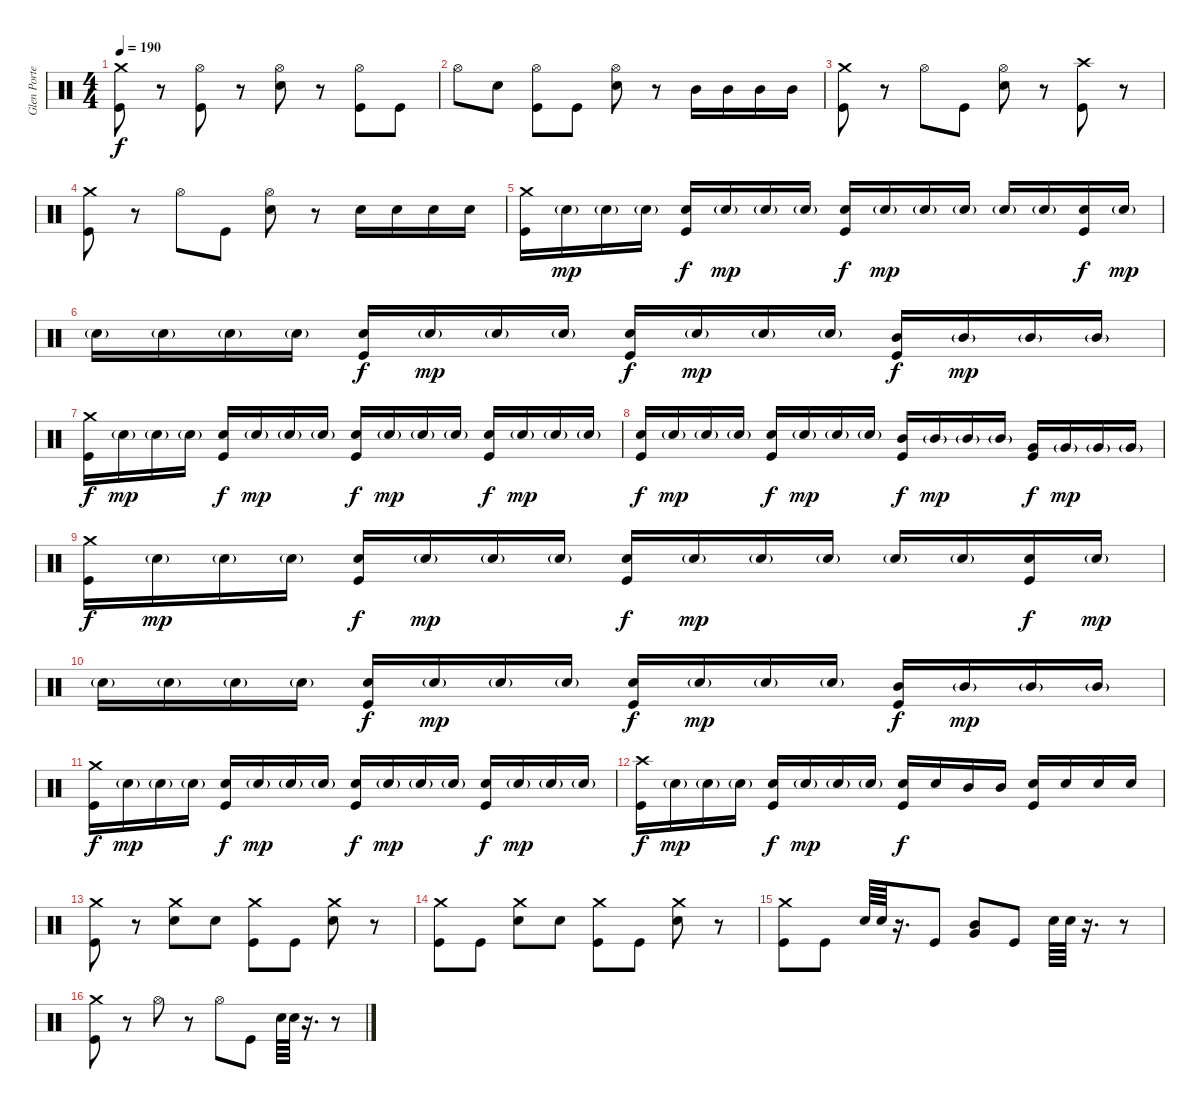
\track ("Glen Porter" "Glen Porte") {instrument percussion}
\staff {score}
\articulation defaults
\ts (4 4)
\tempo 190
\clef neutral
\ks c
("Crash medium (hit)" "Kick (hit)").8{dy f} r.8 ("Hi-Hat (open)" "Kick (hit)").8 r.8 ("Hi-Hat (open)" "Snare (hit) 2").8 r.8 ("Hi-Hat (open)" "Kick (hit)").8 "Kick (hit)".8 |
"Hi-Hat (open)".8 "Snare (hit) 2".8 ("Hi-Hat (open)" "Kick (hit)").8 "Kick (hit)".8 ("Hi-Hat (open)" "Snare (hit) 2").8 r.8 "Mid Tom (hit)".16 "Mid Tom (hit)".16 "Mid Tom (hit)".16 "Mid Tom (hit)".16 |
("Crash medium (hit)" "Kick (hit)").8 r.8 "Hi-Hat (open)".8 "Kick (hit)".8 ("Hi-Hat (open)" "Snare (hit) 2").8 r.8 ("Crash high (hit)" "Kick (hit)").8 r.8 |
("Crash medium (hit)" "Kick (hit)").8 r.8 "Hi-Hat (open)".8 "Kick (hit)".8 ("Hi-Hat (open)" "Snare (hit) 2").8 r.8 "Snare (hit) 2".16 "Snare (hit) 2".16 "Snare (hit) 2".16 "Snare (hit) 2".16 |
("Crash medium (hit)" "Kick (hit)").16 "Snare (hit) 2"{g}.16{dy mp} "Snare (hit) 2"{g}.16 "Snare (hit) 2"{g}.16 ("Snare (hit) 2" "Kick (hit)").16{dy f} "Snare (hit) 2"{g}.16{dy mp} "Snare (hit) 2"{g}.16 "Snare (hit) 2"{g}.16 ("Snare (hit) 2" "Kick (hit)").16{dy f} "Snare (hit) 2"{g}.16{dy mp} "Snare (hit) 2"{g}.16 "Snare (hit) 2"{g}.16 "Snare (hit) 2"{g}.16 "Snare (hit) 2"{g}.16 ("Snare (hit) 2" "Kick (hit)").16{dy f} "Snare (hit) 2"{g}.16{dy mp} |
"Snare (hit) 2"{g}.16 "Snare (hit) 2"{g}.16 "Snare (hit) 2"{g}.16 "Snare (hit) 2"{g}.16 ("Snare (hit) 2" "Kick (hit)").16{dy f} "Snare (hit) 2"{g}.16{dy mp} "Snare (hit) 2"{g}.16 "Snare (hit) 2"{g}.16 ("Snare (hit) 2" "Kick (hit)").16{dy f} "Snare (hit) 2"{g}.16{dy mp} "Snare (hit) 2"{g}.16 "Snare (hit) 2"{g}.16 ("Mid Tom (hit)" "Kick (hit)").16{dy f} "Mid Tom (hit)"{g}.16{dy mp} "Mid Tom (hit)"{g}.16 "Mid Tom (hit)"{g}.16 |
("Crash medium (hit)" "Kick (hit)").16{dy f} "Snare (hit) 2"{g}.16{dy mp} "Snare (hit) 2"{g}.16 "Snare (hit) 2"{g}.16 ("Snare (hit) 2" "Kick (hit)").16{dy f} "Snare (hit) 2"{g}.16{dy mp} "Snare (hit) 2"{g}.16 "Snare (hit) 2"{g}.16 ("Snare (hit) 2" "Kick (hit)").16{dy f} "Snare (hit) 2"{g}.16{dy mp} "Snare (hit) 2"{g}.16 "Snare (hit) 2"{g}.16 ("Snare (hit) 2" "Kick (hit)").16{dy f} "Snare (hit) 2"{g}.16{dy mp} "Snare (hit) 2"{g}.16 "Snare (hit) 2"{g}.16 |
("Snare (hit) 2" "Kick (hit)").16{dy f} "Snare (hit) 2"{g}.16{dy mp} "Snare (hit) 2"{g}.16 "Snare (hit) 2"{g}.16 ("Snare (hit) 2" "Kick (hit)").16{dy f} "Snare (hit) 2"{g}.16{dy mp} "Snare (hit) 2"{g}.16 "Snare (hit) 2"{g}.16 ("Mid Tom (hit)" "Kick (hit)").16{dy f} "Mid Tom (hit)"{g}.16{dy mp} "Mid Tom (hit)"{g}.16 "Mid Tom (hit)"{g}.16 ("Very Low Tom (hit)" "Kick (hit)").16{dy f} "Very Low Tom (hit)"{g}.16{dy mp} "Very Low Tom (hit)"{g}.16 "Very Low Tom (hit)"{g}.16 |
("Crash medium (hit)" "Kick (hit)").16{dy f} "Snare (hit) 2"{g}.16{dy mp} "Snare (hit) 2"{g}.16 "Snare (hit) 2"{g}.16 ("Snare (hit) 2" "Kick (hit)").16{dy f} "Snare (hit) 2"{g}.16{dy mp} "Snare (hit) 2"{g}.16 "Snare (hit) 2"{g}.16 ("Snare (hit) 2" "Kick (hit)").16{dy f} "Snare (hit) 2"{g}.16{dy mp} "Snare (hit) 2"{g}.16 "Snare (hit) 2"{g}.16 "Snare (hit) 2"{g}.16 "Snare (hit) 2"{g}.16 ("Snare (hit) 2" "Kick (hit)").16{dy f} "Snare (hit) 2"{g}.16{dy mp} |
"Snare (hit) 2"{g}.16 "Snare (hit) 2"{g}.16 "Snare (hit) 2"{g}.16 "Snare (hit) 2"{g}.16 ("Snare (hit) 2" "Kick (hit)").16{dy f} "Snare (hit) 2"{g}.16{dy mp} "Snare (hit) 2"{g}.16 "Snare (hit) 2"{g}.16 ("Snare (hit) 2" "Kick (hit)").16{dy f} "Snare (hit) 2"{g}.16{dy mp} "Snare (hit) 2"{g}.16 "Snare (hit) 2"{g}.16 ("Mid Tom (hit)" "Kick (hit)").16{dy f} "Mid Tom (hit)"{g}.16{dy mp} "Mid Tom (hit)"{g}.16 "Mid Tom (hit)"{g}.16 |
("Crash medium (hit)" "Kick (hit)").16{dy f} "Snare (hit) 2"{g}.16{dy mp} "Snare (hit) 2"{g}.16 "Snare (hit) 2"{g}.16 ("Snare (hit) 2" "Kick (hit)").16{dy f} "Snare (hit) 2"{g}.16{dy mp} "Snare (hit) 2"{g}.16 "Snare (hit) 2"{g}.16 ("Snare (hit) 2" "Kick (hit)").16{dy f} "Snare (hit) 2"{g}.16{dy mp} "Snare (hit) 2"{g}.16 "Snare (hit) 2"{g}.16 ("Snare (hit) 2" "Kick (hit)").16{dy f} "Snare (hit) 2"{g}.16{dy mp} "Snare (hit) 2"{g}.16 "Snare (hit) 2"{g}.16 |
("Crash high (hit)" "Kick (hit)").16{dy f} "Snare (hit) 2"{g}.16{dy mp} "Snare (hit) 2"{g}.16 "Snare (hit) 2"{g}.16 ("Snare (hit) 2" "Kick (hit)").16{dy f} "Snare (hit) 2"{g}.16{dy mp} "Snare (hit) 2"{g}.16 "Snare (hit) 2"{g}.16 ("Snare (hit) 2" "Kick (hit)").16{dy f} "Snare (hit) 2".16 "Mid Tom (hit)".16 "Mid Tom (hit)".16 ("Snare (hit) 2" "Kick (hit)").16 "Snare (hit) 2".16 "Snare (hit) 2".16 "Snare (hit) 2".16 |
("Crash medium (hit)" "Kick (hit)").8 r.8 ("Crash medium (hit)" "Snare (hit) 2").8 "Snare (hit) 2".8 ("Crash medium (hit)" "Kick (hit)").8 "Kick (hit)".8 ("Crash medium (hit)" "Snare (hit) 2").8 r.8 |
("Crash medium (hit)" "Kick (hit)").8 "Kick (hit)".8 ("Crash medium (hit)" "Snare (hit) 2").8 "Snare (hit) 2".8 ("Crash medium (hit)" "Kick (hit)").8 "Kick (hit)".8 ("Crash medium (hit)" "Snare (hit) 2").8 r.8 |
("Crash medium (hit)" "Kick (hit)").8 "Kick (hit)".8 "Snare (hit) 2".64 "Snare (hit) 2".64 r.16{d} "Kick (hit)".8 ("Mid Tom (hit)" "Very Low Tom (hit)").8 "Kick (hit)".8 "Snare (hit) 2".64 "Snare (hit) 2".64 r.16{d} r.8 |
("Crash medium (hit)" "Kick (hit)").8 r.8 "Hi-Hat (open)".8 r.8 "Hi-Hat (open)".8 "Kick (hit)".8 "Snare (hit) 2".64 "Snare (hit) 2".64 r.16{d} r.8
